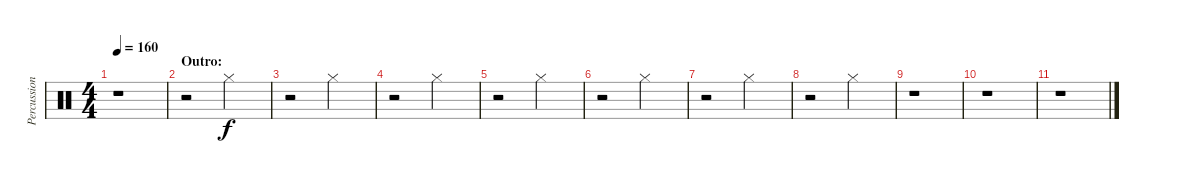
\track ("Percussion" "Percussion") {instrument percussion}
\staff {score}
\articulation defaults
\ts (4 4)
\tempo 160
\clef neutral
\ks c
r.1{dy f} |
\section ("" "Outro:")
r.2 "Hi-Hat (closed)".2 |
r.2 "Hi-Hat (closed)".2 |
r.2 "Hi-Hat (closed)".2 |
r.2 "Hi-Hat (closed)".2 |
r.2 "Hi-Hat (closed)".2 |
r.2 "Hi-Hat (closed)".2 |
r.2 "Hi-Hat (closed)".2 |
r.1 |
r.1 |
r.1
